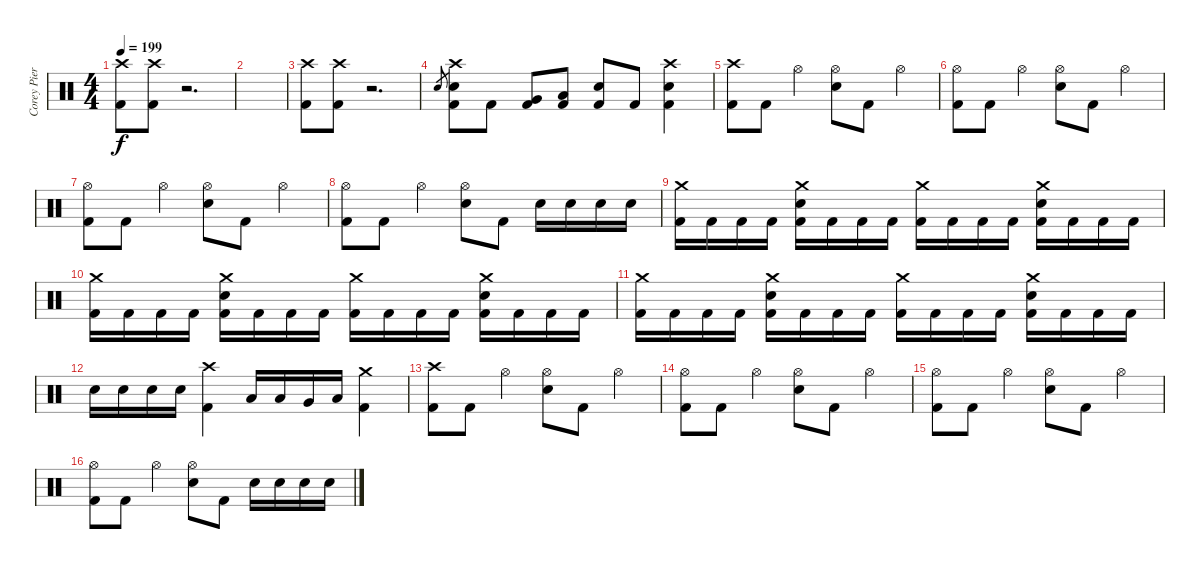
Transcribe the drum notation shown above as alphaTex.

\track ("Corey Pierce (Drums)" "Corey Pier") {instrument percussion}
\staff {score}
\articulation defaults
\ts (4 4)
\tempo 199
\clef neutral
\ks c
("Crash high (hit)" "Kick (hit) 2").8{dy f} ("Crash high (hit)" "Kick (hit) 2").8 r.2{d volume 0} |
|
("Crash high (hit)" "Kick (hit) 2").8{volume 13} ("Crash high (hit)" "Kick (hit) 2").8 r.2{d volume 0} |
"Snare (hit) 2".8{gr} ("Crash high (hit)" "Snare (hit) 2" "Kick (hit) 2").8{volume 16} "Kick (hit) 2".8 ("Very Low Tom (hit)" "Kick (hit) 2").8 ("Low Floor Tom (hit)" "Kick (hit) 2").8 ("Snare (hit) 2" "Kick (hit) 2").8 "Kick (hit) 2".8 ("Crash high (hit)" "Snare (hit) 2" "Kick (hit) 2").4 |
("Crash high (hit)" "Kick (hit) 2").8 "Kick (hit) 2".8 "Hi-Hat (open)".4 ("Hi-Hat (open)" "Snare (hit) 2").8 "Kick (hit) 2".8 "Hi-Hat (open)".4 |
("Hi-Hat (open)" "Kick (hit) 2").8 "Kick (hit) 2".8 "Hi-Hat (open)".4 ("Hi-Hat (open)" "Snare (hit) 2").8 "Kick (hit) 2".8 "Hi-Hat (open)".4 |
("Hi-Hat (open)" "Kick (hit) 2").8 "Kick (hit) 2".8 "Hi-Hat (open)".4 ("Hi-Hat (open)" "Snare (hit) 2").8 "Kick (hit) 2".8 "Hi-Hat (open)".4 |
("Hi-Hat (open)" "Kick (hit) 2").8 "Kick (hit) 2".8 "Hi-Hat (open)".4 ("Hi-Hat (open)" "Snare (hit) 2").8 "Kick (hit) 2".8 "Snare (hit) 2".16 "Snare (hit) 2".16 "Snare (hit) 2".16 "Snare (hit) 2".16 |
("Crash medium (hit)" "Kick (hit) 2").16 "Kick (hit) 2".16 "Kick (hit) 2".16 "Kick (hit) 2".16 ("Snare (hit) 2" "Crash medium (hit)" "Kick (hit) 2").16 "Kick (hit) 2".16 "Kick (hit) 2".16 "Kick (hit) 2".16 ("Crash medium (hit)" "Kick (hit) 2").16 "Kick (hit) 2".16 "Kick (hit) 2".16 "Kick (hit) 2".16 ("Snare (hit) 2" "Crash medium (hit)" "Kick (hit) 2").16 "Kick (hit) 2".16 "Kick (hit) 2".16 "Kick (hit) 2".16 |
("Crash medium (hit)" "Kick (hit) 2").16 "Kick (hit) 2".16 "Kick (hit) 2".16 "Kick (hit) 2".16 ("Snare (hit) 2" "Crash medium (hit)" "Kick (hit) 2").16 "Kick (hit) 2".16 "Kick (hit) 2".16 "Kick (hit) 2".16 ("Crash medium (hit)" "Kick (hit) 2").16 "Kick (hit) 2".16 "Kick (hit) 2".16 "Kick (hit) 2".16 ("Snare (hit) 2" "Crash medium (hit)" "Kick (hit) 2").16 "Kick (hit) 2".16 "Kick (hit) 2".16 "Kick (hit) 2".16 |
("Crash medium (hit)" "Kick (hit) 2").16 "Kick (hit) 2".16 "Kick (hit) 2".16 "Kick (hit) 2".16 ("Snare (hit) 2" "Crash medium (hit)" "Kick (hit) 2").16 "Kick (hit) 2".16 "Kick (hit) 2".16 "Kick (hit) 2".16 ("Crash medium (hit)" "Kick (hit) 2").16 "Kick (hit) 2".16 "Kick (hit) 2".16 "Kick (hit) 2".16 ("Snare (hit) 2" "Crash medium (hit)" "Kick (hit) 2").16 "Kick (hit) 2".16 "Kick (hit) 2".16 "Kick (hit) 2".16 |
"Snare (hit) 2".16 "Snare (hit) 2".16 "Snare (hit) 2".16 "Snare (hit) 2".16 ("Crash high (hit)" "Kick (hit) 2").4 "Low Tom (hit)".16 "Low Tom (hit)".16 "Very Low Tom (hit)".16 "Low Floor Tom (hit)".16 ("Crash medium (hit)" "Kick (hit) 2").4 |
("Crash high (hit)" "Kick (hit) 2").8 "Kick (hit) 2".8 "Hi-Hat (open)".4 ("Hi-Hat (open)" "Snare (hit) 2").8 "Kick (hit) 2".8 "Hi-Hat (open)".4 |
("Hi-Hat (open)" "Kick (hit) 2").8 "Kick (hit) 2".8 "Hi-Hat (open)".4 ("Hi-Hat (open)" "Snare (hit) 2").8 "Kick (hit) 2".8 "Hi-Hat (open)".4 |
("Hi-Hat (open)" "Kick (hit) 2").8 "Kick (hit) 2".8 "Hi-Hat (open)".4 ("Hi-Hat (open)" "Snare (hit) 2").8 "Kick (hit) 2".8 "Hi-Hat (open)".4 |
("Hi-Hat (open)" "Kick (hit) 2").8 "Kick (hit) 2".8 "Hi-Hat (open)".4 ("Hi-Hat (open)" "Snare (hit) 2").8 "Kick (hit) 2".8 "Snare (hit) 2".16 "Snare (hit) 2".16 "Snare (hit) 2".16 "Snare (hit) 2".16
